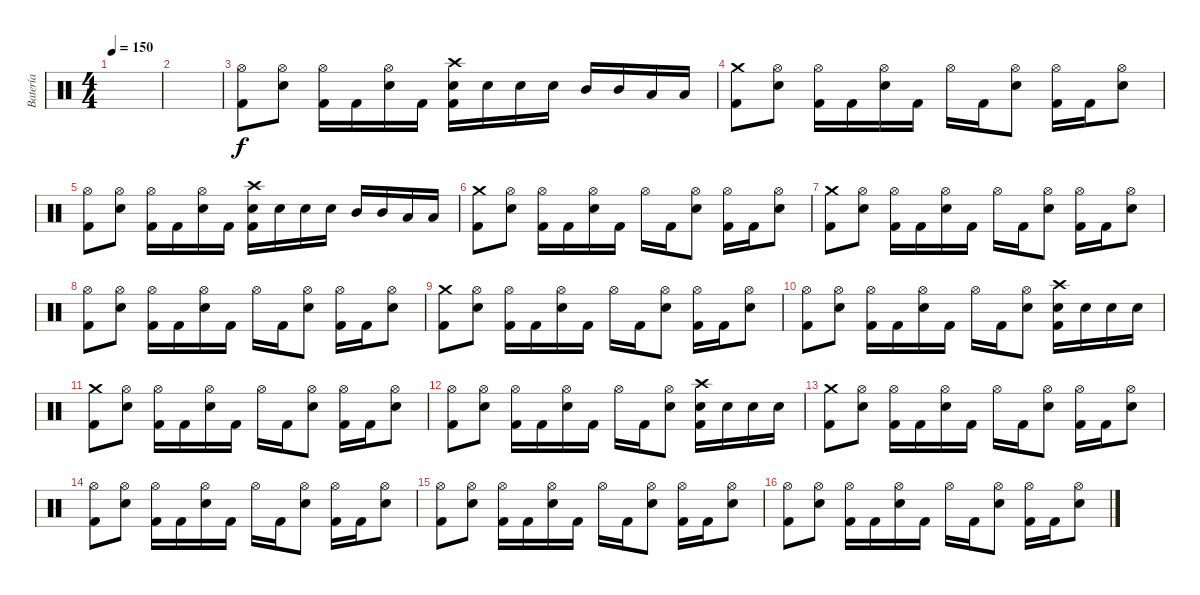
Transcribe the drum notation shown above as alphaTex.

\track ("Batería" "Batería") {instrument percussion}
\staff {score}
\articulation defaults
\ts (4 4)
\tempo 150
\clef neutral
\ks c
|
|
("Kick (hit) 2" "Hi-Hat (open)").8 ("Snare (hit) 2" "Hi-Hat (open)").8 ("Kick (hit) 2" "Hi-Hat (open)").16 "Kick (hit) 2".16 ("Snare (hit) 2" "Hi-Hat (open)").16 "Kick (hit) 2".16 ("Kick (hit) 2" "Snare (hit) 2" "Crash high (hit)").16 "Snare (hit) 2".16 "Snare (hit) 2".16 "Snare (hit) 2".16 "Mid Tom (hit)".16 "Mid Tom (hit)".16 "Low Tom (hit)".16 "Low Tom (hit)".16 |
("Kick (hit) 2" "Crash medium (hit)").8 ("Snare (hit) 2" "Hi-Hat (open)").8 ("Kick (hit) 2" "Hi-Hat (open)").16 "Kick (hit) 2".16 ("Snare (hit) 2" "Hi-Hat (open)").16 "Kick (hit) 2".16 "Hi-Hat (open)".16 "Kick (hit) 2".16 ("Snare (hit) 2" "Hi-Hat (open)").8 ("Kick (hit) 2" "Hi-Hat (open)").16 "Kick (hit) 2".16 ("Snare (hit) 2" "Hi-Hat (open)").8 |
("Kick (hit) 2" "Hi-Hat (open)").8 ("Snare (hit) 2" "Hi-Hat (open)").8 ("Kick (hit) 2" "Hi-Hat (open)").16 "Kick (hit) 2".16 ("Snare (hit) 2" "Hi-Hat (open)").16 "Kick (hit) 2".16 ("Kick (hit) 2" "Snare (hit) 2" "Crash high (hit)").16 "Snare (hit) 2".16 "Snare (hit) 2".16 "Snare (hit) 2".16 "Mid Tom (hit)".16 "Mid Tom (hit)".16 "Low Tom (hit)".16 "Low Tom (hit)".16 |
("Kick (hit) 2" "Crash medium (hit)").8 ("Snare (hit) 2" "Hi-Hat (open)").8 ("Kick (hit) 2" "Hi-Hat (open)").16 "Kick (hit) 2".16 ("Snare (hit) 2" "Hi-Hat (open)").16 "Kick (hit) 2".16 "Hi-Hat (open)".16 "Kick (hit) 2".16 ("Snare (hit) 2" "Hi-Hat (open)").8 ("Kick (hit) 2" "Hi-Hat (open)").16 "Kick (hit) 2".16 ("Snare (hit) 2" "Hi-Hat (open)").8 |
("Kick (hit) 2" "Crash medium (hit)").8 ("Snare (hit) 2" "Hi-Hat (open)").8 ("Kick (hit) 2" "Hi-Hat (open)").16 "Kick (hit) 2".16 ("Snare (hit) 2" "Hi-Hat (open)").16 "Kick (hit) 2".16 "Hi-Hat (open)".16 "Kick (hit) 2".16 ("Snare (hit) 2" "Hi-Hat (open)").8 ("Kick (hit) 2" "Hi-Hat (open)").16 "Kick (hit) 2".16 ("Snare (hit) 2" "Hi-Hat (open)").8 |
("Kick (hit) 2" "Hi-Hat (open)").8 ("Snare (hit) 2" "Hi-Hat (open)").8 ("Kick (hit) 2" "Hi-Hat (open)").16 "Kick (hit) 2".16 ("Snare (hit) 2" "Hi-Hat (open)").16 "Kick (hit) 2".16 "Hi-Hat (open)".16 "Kick (hit) 2".16 ("Snare (hit) 2" "Hi-Hat (open)").8 ("Kick (hit) 2" "Hi-Hat (open)").16 "Kick (hit) 2".16 ("Snare (hit) 2" "Hi-Hat (open)").8 |
("Kick (hit) 2" "Crash medium (hit)").8 ("Snare (hit) 2" "Hi-Hat (open)").8 ("Kick (hit) 2" "Hi-Hat (open)").16 "Kick (hit) 2".16 ("Snare (hit) 2" "Hi-Hat (open)").16 "Kick (hit) 2".16 "Hi-Hat (open)".16 "Kick (hit) 2".16 ("Snare (hit) 2" "Hi-Hat (open)").8 ("Kick (hit) 2" "Hi-Hat (open)").16 "Kick (hit) 2".16 ("Snare (hit) 2" "Hi-Hat (open)").8 |
("Kick (hit) 2" "Hi-Hat (open)").8 ("Snare (hit) 2" "Hi-Hat (open)").8 ("Kick (hit) 2" "Hi-Hat (open)").16 "Kick (hit) 2".16 ("Snare (hit) 2" "Hi-Hat (open)").16 "Kick (hit) 2".16 "Hi-Hat (open)".16 "Kick (hit) 2".16 ("Snare (hit) 2" "Hi-Hat (open)").8 ("Kick (hit) 2" "Snare (hit) 2" "Crash high (hit)").16 "Snare (hit) 2".16 "Snare (hit) 2".16 "Snare (hit) 2".16 |
("Kick (hit) 2" "Crash medium (hit)").8 ("Snare (hit) 2" "Hi-Hat (open)").8 ("Kick (hit) 2" "Hi-Hat (open)").16 "Kick (hit) 2".16 ("Snare (hit) 2" "Hi-Hat (open)").16 "Kick (hit) 2".16 "Hi-Hat (open)".16 "Kick (hit) 2".16 ("Snare (hit) 2" "Hi-Hat (open)").8 ("Kick (hit) 2" "Hi-Hat (open)").16 "Kick (hit) 2".16 ("Snare (hit) 2" "Hi-Hat (open)").8 |
("Kick (hit) 2" "Hi-Hat (open)").8 ("Snare (hit) 2" "Hi-Hat (open)").8 ("Kick (hit) 2" "Hi-Hat (open)").16 "Kick (hit) 2".16 ("Snare (hit) 2" "Hi-Hat (open)").16 "Kick (hit) 2".16 "Hi-Hat (open)".16 "Kick (hit) 2".16 ("Snare (hit) 2" "Hi-Hat (open)").8 ("Kick (hit) 2" "Snare (hit) 2" "Crash high (hit)").16 "Snare (hit) 2".16 "Snare (hit) 2".16 "Snare (hit) 2".16 |
("Kick (hit) 2" "Crash medium (hit)").8 ("Snare (hit) 2" "Hi-Hat (open)").8 ("Kick (hit) 2" "Hi-Hat (open)").16 "Kick (hit) 2".16 ("Snare (hit) 2" "Hi-Hat (open)").16 "Kick (hit) 2".16 "Hi-Hat (open)".16 "Kick (hit) 2".16 ("Snare (hit) 2" "Hi-Hat (open)").8 ("Kick (hit) 2" "Hi-Hat (open)").16 "Kick (hit) 2".16 ("Snare (hit) 2" "Hi-Hat (open)").8 |
("Kick (hit) 2" "Hi-Hat (open)").8 ("Snare (hit) 2" "Hi-Hat (open)").8 ("Kick (hit) 2" "Hi-Hat (open)").16 "Kick (hit) 2".16 ("Snare (hit) 2" "Hi-Hat (open)").16 "Kick (hit) 2".16 "Hi-Hat (open)".16 "Kick (hit) 2".16 ("Snare (hit) 2" "Hi-Hat (open)").8 ("Kick (hit) 2" "Hi-Hat (open)").16 "Kick (hit) 2".16 ("Snare (hit) 2" "Hi-Hat (open)").8 |
("Kick (hit) 2" "Hi-Hat (open)").8 ("Snare (hit) 2" "Hi-Hat (open)").8 ("Kick (hit) 2" "Hi-Hat (open)").16 "Kick (hit) 2".16 ("Snare (hit) 2" "Hi-Hat (open)").16 "Kick (hit) 2".16 "Hi-Hat (open)".16 "Kick (hit) 2".16 ("Snare (hit) 2" "Hi-Hat (open)").8 ("Kick (hit) 2" "Hi-Hat (open)").16 "Kick (hit) 2".16 ("Snare (hit) 2" "Hi-Hat (open)").8 |
("Kick (hit) 2" "Hi-Hat (open)").8 ("Snare (hit) 2" "Hi-Hat (open)").8 ("Kick (hit) 2" "Hi-Hat (open)").16 "Kick (hit) 2".16 ("Snare (hit) 2" "Hi-Hat (open)").16 "Kick (hit) 2".16 "Hi-Hat (open)".16 "Kick (hit) 2".16 ("Snare (hit) 2" "Hi-Hat (open)").8 ("Kick (hit) 2" "Hi-Hat (open)").16 "Kick (hit) 2".16 ("Snare (hit) 2" "Hi-Hat (open)").8
